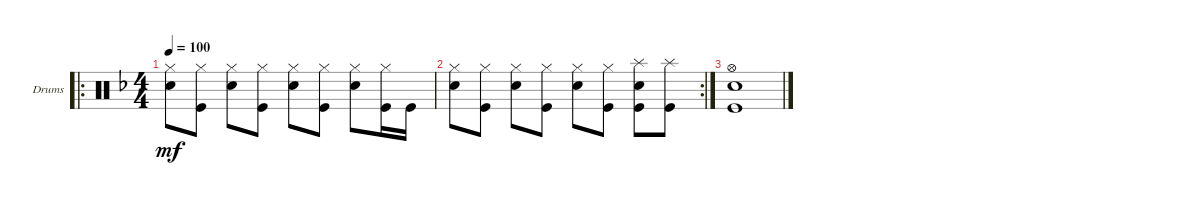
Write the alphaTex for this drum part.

\bracketExtendMode groupsimilarinstruments
\firstSystemTrackNameOrientation horizontal
\otherSystemsTrackNameOrientation horizontal
\track ("БАРАБАНЫ" "Drums") {solo instrument percussion}
\staff {score}
\articulation defaults
\ro
\ts (4 4)
\tempo 100
\clef neutral
\ks dminor
("Snare (hit) 2" "Hi-Hat (closed)").8{dy mf} ("Hi-Hat (closed)" "Kick (hit)").8 ("Snare (hit) 2" "Hi-Hat (closed)").8 ("Hi-Hat (closed)" "Kick (hit)").8 ("Snare (hit) 2" "Hi-Hat (closed)").8 ("Hi-Hat (closed)" "Kick (hit)").8 ("Snare (hit) 2" "Hi-Hat (closed)").8 ("Hi-Hat (closed)" "Kick (hit)").16 "Kick (hit)".16 |
\rc 2
("Snare (hit) 2" "Hi-Hat (closed)").8 ("Hi-Hat (closed)" "Kick (hit)").8 ("Snare (hit) 2" "Hi-Hat (closed)").8 ("Hi-Hat (closed)" "Kick (hit)").8 ("Snare (hit) 2" "Hi-Hat (closed)").8 ("Hi-Hat (closed)" "Kick (hit)").8 ("Kick (hit)" "Splash (hit)" "Snare (hit) 2").8 ("Kick (hit)" "Splash (hit)").8 |
("Kick (hit)" "Snare (hit) 2" "Hi-Hat (open)").1
